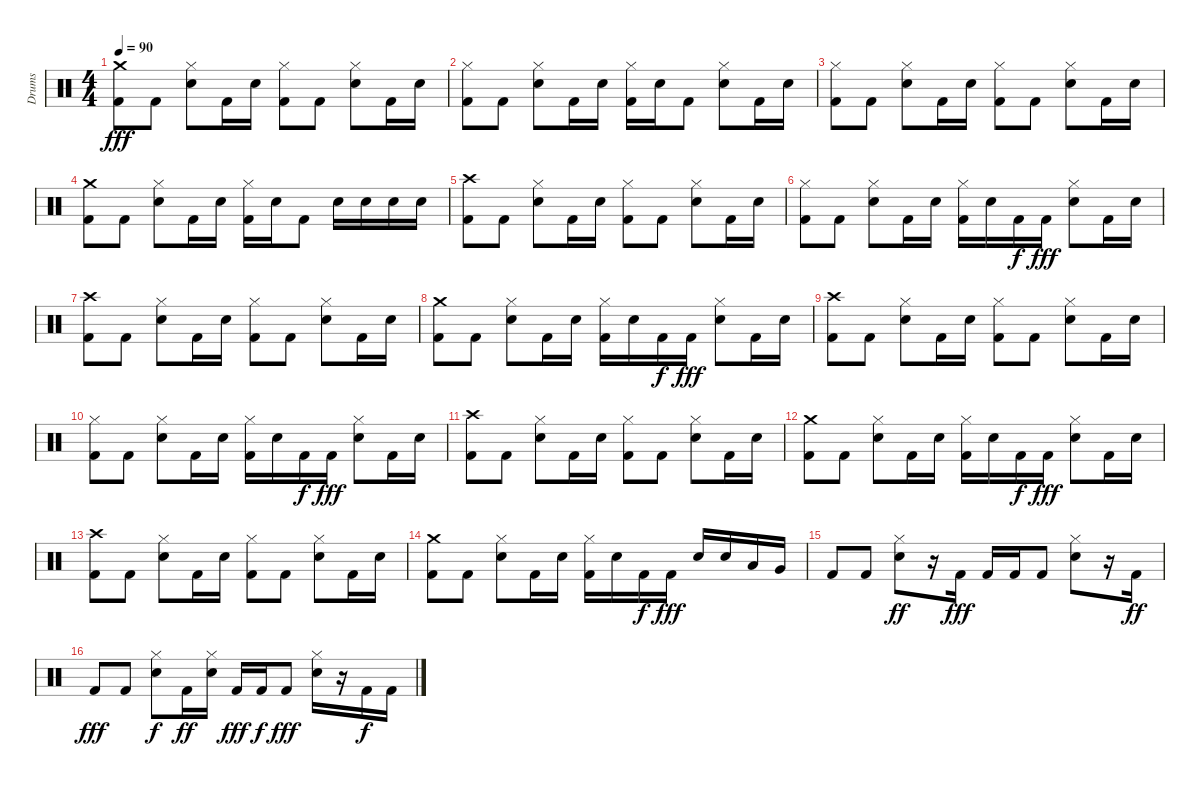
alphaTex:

\track ("Drums" "Drums") {instrument percussion}
\staff {score}
\articulation defaults
\ts (4 4)
\tempo 90
\clef neutral
\ks c
("Crash medium (hit)" "Kick (hit) 2").8{dy fff} "Kick (hit) 2".8 ("Hi-Hat (closed)" "Snare (hit) 2").8 "Kick (hit) 2".16 "Snare (hit) 2".16 ("Hi-Hat (closed)" "Kick (hit) 2").8 "Kick (hit) 2".8 ("Hi-Hat (closed)" "Snare (hit) 2").8 "Kick (hit) 2".16 "Snare (hit) 2".16 |
("Hi-Hat (closed)" "Kick (hit) 2").8 "Kick (hit) 2".8 ("Hi-Hat (closed)" "Snare (hit) 2").8 "Kick (hit) 2".16 "Snare (hit) 2".16 ("Hi-Hat (closed)" "Kick (hit) 2").16 "Snare (hit) 2".16 "Kick (hit) 2".8 ("Hi-Hat (closed)" "Snare (hit) 2").8 "Kick (hit) 2".16 "Snare (hit) 2".16 |
("Hi-Hat (closed)" "Kick (hit) 2").8 "Kick (hit) 2".8 ("Hi-Hat (closed)" "Snare (hit) 2").8 "Kick (hit) 2".16 "Snare (hit) 2".16 ("Hi-Hat (closed)" "Kick (hit) 2").8 "Kick (hit) 2".8 ("Hi-Hat (closed)" "Snare (hit) 2").8 "Kick (hit) 2".16 "Snare (hit) 2".16 |
("Crash medium (hit)" "Kick (hit) 2").8 "Kick (hit) 2".8 ("Hi-Hat (closed)" "Snare (hit) 2").8 "Kick (hit) 2".16 "Snare (hit) 2".16 ("Hi-Hat (closed)" "Kick (hit) 2").16 "Snare (hit) 2".16 "Kick (hit) 2".8 "Snare (hit) 2".16 "Snare (hit) 2".16 "Snare (hit) 2".16 "Snare (hit) 2".16 |
("Crash high (hit)" "Kick (hit) 2").8 "Kick (hit) 2".8 ("Hi-Hat (closed)" "Snare (hit) 2").8 "Kick (hit) 2".16 "Snare (hit) 2".16 ("Hi-Hat (closed)" "Kick (hit) 2").8 "Kick (hit) 2".8 ("Hi-Hat (closed)" "Snare (hit) 2").8 "Kick (hit) 2".16 "Snare (hit) 2".16 |
("Hi-Hat (closed)" "Kick (hit) 2").8 "Kick (hit) 2".8 ("Hi-Hat (closed)" "Snare (hit) 2").8 "Kick (hit) 2".16 "Snare (hit) 2".16 ("Hi-Hat (closed)" "Kick (hit) 2").16 "Snare (hit) 2".16 "Kick (hit) 2".16{dy f} "Kick (hit) 2".16{dy fff} ("Hi-Hat (closed)" "Snare (hit) 2").8 "Kick (hit) 2".16 "Snare (hit) 2".16 |
("Crash high (hit)" "Kick (hit) 2").8 "Kick (hit) 2".8 ("Hi-Hat (closed)" "Snare (hit) 2").8 "Kick (hit) 2".16 "Snare (hit) 2".16 ("Hi-Hat (closed)" "Kick (hit) 2").8 "Kick (hit) 2".8 ("Hi-Hat (closed)" "Snare (hit) 2").8 "Kick (hit) 2".16 "Snare (hit) 2".16 |
("Crash medium (hit)" "Kick (hit) 2").8 "Kick (hit) 2".8 ("Hi-Hat (closed)" "Snare (hit) 2").8 "Kick (hit) 2".16 "Snare (hit) 2".16 ("Hi-Hat (closed)" "Kick (hit) 2").16 "Snare (hit) 2".16 "Kick (hit) 2".16{dy f} "Kick (hit) 2".16{dy fff} ("Hi-Hat (closed)" "Snare (hit) 2").8 "Kick (hit) 2".16 "Snare (hit) 2".16 |
("Crash high (hit)" "Kick (hit) 2").8 "Kick (hit) 2".8 ("Hi-Hat (closed)" "Snare (hit) 2").8 "Kick (hit) 2".16 "Snare (hit) 2".16 ("Hi-Hat (closed)" "Kick (hit) 2").8 "Kick (hit) 2".8 ("Hi-Hat (closed)" "Snare (hit) 2").8 "Kick (hit) 2".16 "Snare (hit) 2".16 |
("Hi-Hat (closed)" "Kick (hit) 2").8 "Kick (hit) 2".8 ("Hi-Hat (closed)" "Snare (hit) 2").8 "Kick (hit) 2".16 "Snare (hit) 2".16 ("Hi-Hat (closed)" "Kick (hit) 2").16 "Snare (hit) 2".16 "Kick (hit) 2".16{dy f} "Kick (hit) 2".16{dy fff} ("Hi-Hat (closed)" "Snare (hit) 2").8 "Kick (hit) 2".16 "Snare (hit) 2".16 |
("Crash high (hit)" "Kick (hit) 2").8 "Kick (hit) 2".8 ("Hi-Hat (closed)" "Snare (hit) 2").8 "Kick (hit) 2".16 "Snare (hit) 2".16 ("Hi-Hat (closed)" "Kick (hit) 2").8 "Kick (hit) 2".8 ("Hi-Hat (closed)" "Snare (hit) 2").8 "Kick (hit) 2".16 "Snare (hit) 2".16 |
("Crash medium (hit)" "Kick (hit) 2").8 "Kick (hit) 2".8 ("Hi-Hat (closed)" "Snare (hit) 2").8 "Kick (hit) 2".16 "Snare (hit) 2".16 ("Hi-Hat (closed)" "Kick (hit) 2").16 "Snare (hit) 2".16 "Kick (hit) 2".16{dy f} "Kick (hit) 2".16{dy fff} ("Hi-Hat (closed)" "Snare (hit) 2").8 "Kick (hit) 2".16 "Snare (hit) 2".16 |
("Crash high (hit)" "Kick (hit) 2").8 "Kick (hit) 2".8 ("Hi-Hat (closed)" "Snare (hit) 2").8 "Kick (hit) 2".16 "Snare (hit) 2".16 ("Hi-Hat (closed)" "Kick (hit) 2").8 "Kick (hit) 2".8 ("Hi-Hat (closed)" "Snare (hit) 2").8 "Kick (hit) 2".16 "Snare (hit) 2".16 |
("Crash medium (hit)" "Kick (hit) 2").8 "Kick (hit) 2".8 ("Hi-Hat (closed)" "Snare (hit) 2").8 "Kick (hit) 2".16 "Snare (hit) 2".16 ("Hi-Hat (closed)" "Kick (hit) 2").16 "Snare (hit) 2".16 "Kick (hit) 2".16{dy f} "Kick (hit) 2".16{dy fff} "Snare (hit) 2".16 "Snare (hit) 2".16 "Low Tom (hit)".16 "Very Low Tom (hit)".16 |
"Kick (hit) 2".8 "Kick (hit) 2".8 ("Hi-Hat (closed)" "Snare (hit) 2").8{dy ff} r.16 "Kick (hit) 2".16{dy fff} "Kick (hit) 2".16 "Kick (hit) 2".16 "Kick (hit) 2".8 ("Hi-Hat (closed)" "Snare (hit) 2").8 r.16 "Kick (hit) 2".16{dy ff} |
"Kick (hit) 2".8{dy fff} "Kick (hit) 2".8 ("Hi-Hat (closed)" "Snare (hit) 2").8{dy f} "Kick (hit) 2".16{dy ff} ("Hi-Hat (closed)" "Snare (hit) 2").16 "Kick (hit) 2".16{dy fff} "Kick (hit) 2".16{dy f} "Kick (hit) 2".8{dy fff} ("Hi-Hat (closed)" "Snare (hit) 2").16 r.16 "Kick (hit) 2".16{dy f} "Kick (hit) 2".16
